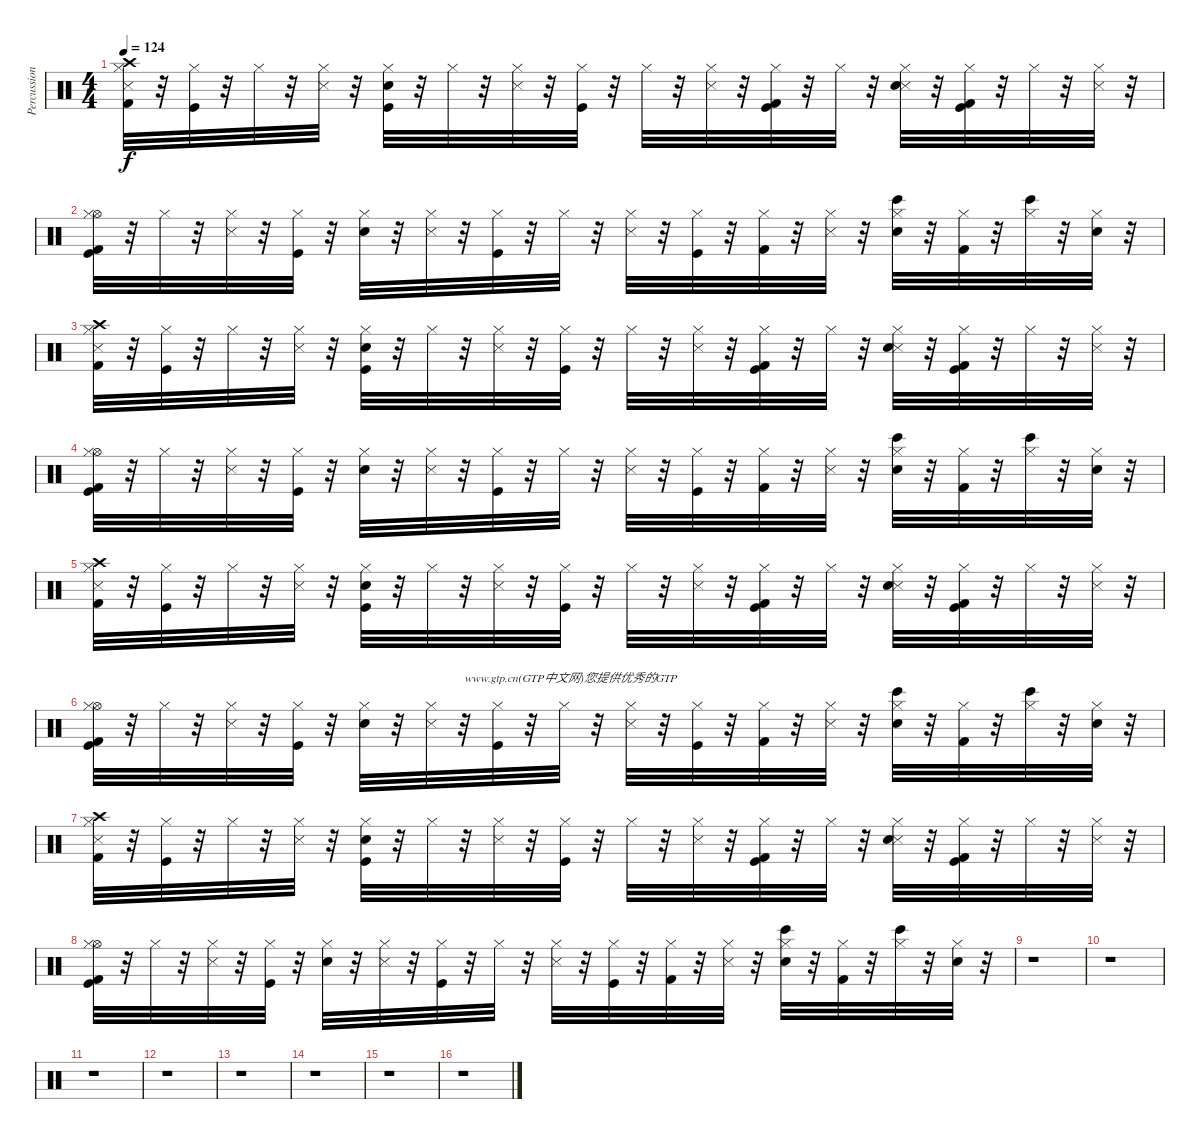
\track ("Percussions" "Percussion") {instrument percussion}
\staff {score}
\articulation defaults
\ts (4 4)
\tempo 124
\clef neutral
\ks c
("Metronome (hit)" "Crash high (hit)" "Kick (hit) 2" "Hi-Hat (closed)").32{dy f} r.32 ("Kick (hit)" "Hi-Hat (closed)").32 r.32 "Hi-Hat (closed)".32 r.32 ("Metronome (hit)" "Hi-Hat (closed)").32 r.32 ("Kick (hit)" "Hi-Hat (closed)" "Electric Snare (hit)").32 r.32 "Hi-Hat (closed)".32 r.32 ("Metronome (hit)" "Hi-Hat (closed)").32 r.32 ("Kick (hit)" "Hi-Hat (closed)").32 r.32 "Hi-Hat (closed)".32 r.32 ("Metronome (hit)" "Hi-Hat (closed)").32 r.32 ("Kick (hit)" "Hi-Hat (closed)" "Kick (hit) 2").32 r.32 "Hi-Hat (closed)".32 r.32 ("Metronome (hit)" "Hi-Hat (closed)" "Electric Snare (hit)").32 r.32 ("Kick (hit)" "Kick (hit) 2" "Hi-Hat (closed)").32 r.32 "Hi-Hat (closed)".32 r.32 ("Metronome (hit)" "Hi-Hat (closed)").32 r.32 |
("Kick (hit)" "Hi-Hat (open)" "Kick (hit) 2" "Hi-Hat (closed)").32 r.32 "Hi-Hat (closed)".32 r.32 ("Metronome (hit)" "Hi-Hat (closed)").32 r.32 ("Kick (hit)" "Hi-Hat (closed)").32 r.32 ("Electric Snare (hit)" "Hi-Hat (closed)").32 r.32 ("Metronome (hit)" "Hi-Hat (closed)").32 r.32 ("Kick (hit)" "Hi-Hat (closed)").32 r.32 "Hi-Hat (closed)".32 r.32 ("Metronome (hit)" "Hi-Hat (closed)").32 r.32 ("Kick (hit)" "Hi-Hat (closed)").32 r.32 ("Hi-Hat (closed)" "Kick (hit) 2").32 r.32 ("Metronome (hit)" "Hi-Hat (closed)").32 r.32 ("Bongo High (hit)" "Electric Snare (hit)" "Hi-Hat (closed)").32 r.32 ("Kick (hit) 2" "Hi-Hat (closed)").32 r.32 ("Bongo High (hit)" "Hi-Hat (closed)").32 r.32 ("Hi-Hat (closed)" "Electric Snare (hit)").32 r.32 |
("Metronome (hit)" "Crash high (hit)" "Kick (hit) 2" "Hi-Hat (closed)").32 r.32 ("Kick (hit)" "Hi-Hat (closed)").32 r.32 "Hi-Hat (closed)".32 r.32 ("Metronome (hit)" "Hi-Hat (closed)").32 r.32 ("Kick (hit)" "Hi-Hat (closed)" "Electric Snare (hit)").32 r.32 "Hi-Hat (closed)".32 r.32 ("Metronome (hit)" "Hi-Hat (closed)").32 r.32 ("Kick (hit)" "Hi-Hat (closed)").32 r.32 "Hi-Hat (closed)".32 r.32 ("Metronome (hit)" "Hi-Hat (closed)").32 r.32 ("Kick (hit)" "Hi-Hat (closed)" "Kick (hit) 2").32 r.32 "Hi-Hat (closed)".32 r.32 ("Metronome (hit)" "Hi-Hat (closed)" "Electric Snare (hit)").32 r.32 ("Kick (hit)" "Kick (hit) 2" "Hi-Hat (closed)").32 r.32 "Hi-Hat (closed)".32 r.32 ("Metronome (hit)" "Hi-Hat (closed)").32 r.32 |
("Kick (hit)" "Hi-Hat (open)" "Kick (hit) 2" "Hi-Hat (closed)").32 r.32 "Hi-Hat (closed)".32 r.32 ("Metronome (hit)" "Hi-Hat (closed)").32 r.32 ("Kick (hit)" "Hi-Hat (closed)").32 r.32 ("Electric Snare (hit)" "Hi-Hat (closed)").32 r.32 ("Metronome (hit)" "Hi-Hat (closed)").32 r.32 ("Kick (hit)" "Hi-Hat (closed)").32 r.32 "Hi-Hat (closed)".32 r.32 ("Metronome (hit)" "Hi-Hat (closed)").32 r.32 ("Kick (hit)" "Hi-Hat (closed)").32 r.32 ("Hi-Hat (closed)" "Kick (hit) 2").32 r.32 ("Metronome (hit)" "Hi-Hat (closed)").32 r.32 ("Bongo High (hit)" "Electric Snare (hit)" "Hi-Hat (closed)").32 r.32 ("Kick (hit) 2" "Hi-Hat (closed)").32 r.32 ("Bongo High (hit)" "Hi-Hat (closed)").32 r.32 ("Hi-Hat (closed)" "Electric Snare (hit)").32 r.32 |
("Metronome (hit)" "Crash high (hit)" "Kick (hit) 2" "Hi-Hat (closed)").32 r.32 ("Kick (hit)" "Hi-Hat (closed)").32 r.32 "Hi-Hat (closed)".32 r.32 ("Metronome (hit)" "Hi-Hat (closed)").32 r.32 ("Kick (hit)" "Hi-Hat (closed)" "Electric Snare (hit)").32 r.32 "Hi-Hat (closed)".32 r.32 ("Metronome (hit)" "Hi-Hat (closed)").32 r.32 ("Kick (hit)" "Hi-Hat (closed)").32 r.32 "Hi-Hat (closed)".32 r.32 ("Metronome (hit)" "Hi-Hat (closed)").32 r.32 ("Kick (hit)" "Hi-Hat (closed)" "Kick (hit) 2").32 r.32 "Hi-Hat (closed)".32 r.32 ("Metronome (hit)" "Hi-Hat (closed)" "Electric Snare (hit)").32 r.32 ("Kick (hit)" "Kick (hit) 2" "Hi-Hat (closed)").32 r.32 "Hi-Hat (closed)".32 r.32 ("Metronome (hit)" "Hi-Hat (closed)").32 r.32 |
("Kick (hit)" "Hi-Hat (open)" "Kick (hit) 2" "Hi-Hat (closed)").32 r.32 "Hi-Hat (closed)".32 r.32 ("Metronome (hit)" "Hi-Hat (closed)").32 r.32 ("Kick (hit)" "Hi-Hat (closed)").32 r.32 ("Electric Snare (hit)" "Hi-Hat (closed)").32 r.32 ("Metronome (hit)" "Hi-Hat (closed)").32 r.32{txt "www.gtp.cn(GTP中文网)您提供优秀的GTP"} ("Kick (hit)" "Hi-Hat (closed)").32 r.32 "Hi-Hat (closed)".32 r.32 ("Metronome (hit)" "Hi-Hat (closed)").32 r.32 ("Kick (hit)" "Hi-Hat (closed)").32 r.32 ("Hi-Hat (closed)" "Kick (hit) 2").32 r.32 ("Metronome (hit)" "Hi-Hat (closed)").32 r.32 ("Bongo High (hit)" "Electric Snare (hit)" "Hi-Hat (closed)").32 r.32 ("Kick (hit) 2" "Hi-Hat (closed)").32 r.32 ("Bongo High (hit)" "Hi-Hat (closed)").32 r.32 ("Hi-Hat (closed)" "Electric Snare (hit)").32 r.32 |
("Metronome (hit)" "Crash high (hit)" "Kick (hit) 2" "Hi-Hat (closed)").32 r.32 ("Kick (hit)" "Hi-Hat (closed)").32 r.32 "Hi-Hat (closed)".32 r.32 ("Metronome (hit)" "Hi-Hat (closed)").32 r.32 ("Kick (hit)" "Hi-Hat (closed)" "Electric Snare (hit)").32 r.32 "Hi-Hat (closed)".32 r.32 ("Metronome (hit)" "Hi-Hat (closed)").32 r.32 ("Kick (hit)" "Hi-Hat (closed)").32 r.32 "Hi-Hat (closed)".32 r.32 ("Metronome (hit)" "Hi-Hat (closed)").32 r.32 ("Kick (hit)" "Hi-Hat (closed)" "Kick (hit) 2").32 r.32 "Hi-Hat (closed)".32 r.32 ("Metronome (hit)" "Hi-Hat (closed)" "Electric Snare (hit)").32 r.32 ("Kick (hit)" "Kick (hit) 2" "Hi-Hat (closed)").32 r.32 "Hi-Hat (closed)".32 r.32 ("Metronome (hit)" "Hi-Hat (closed)").32 r.32 |
("Kick (hit)" "Hi-Hat (open)" "Kick (hit) 2" "Hi-Hat (closed)").32 r.32 "Hi-Hat (closed)".32 r.32 ("Metronome (hit)" "Hi-Hat (closed)").32 r.32 ("Kick (hit)" "Hi-Hat (closed)").32 r.32 ("Electric Snare (hit)" "Hi-Hat (closed)").32 r.32 ("Metronome (hit)" "Hi-Hat (closed)").32 r.32 ("Kick (hit)" "Hi-Hat (closed)").32 r.32 "Hi-Hat (closed)".32 r.32 ("Metronome (hit)" "Hi-Hat (closed)").32 r.32 ("Kick (hit)" "Hi-Hat (closed)").32 r.32 ("Hi-Hat (closed)" "Kick (hit) 2").32 r.32 ("Metronome (hit)" "Hi-Hat (closed)").32 r.32 ("Bongo High (hit)" "Electric Snare (hit)" "Hi-Hat (closed)").32 r.32 ("Kick (hit) 2" "Hi-Hat (closed)").32 r.32 ("Bongo High (hit)" "Hi-Hat (closed)").32 r.32 ("Hi-Hat (closed)" "Electric Snare (hit)").32 r.32 |
r.1 |
r.1 |
r.1 |
r.1 |
r.1 |
r.1 |
r.1 |
r.1
